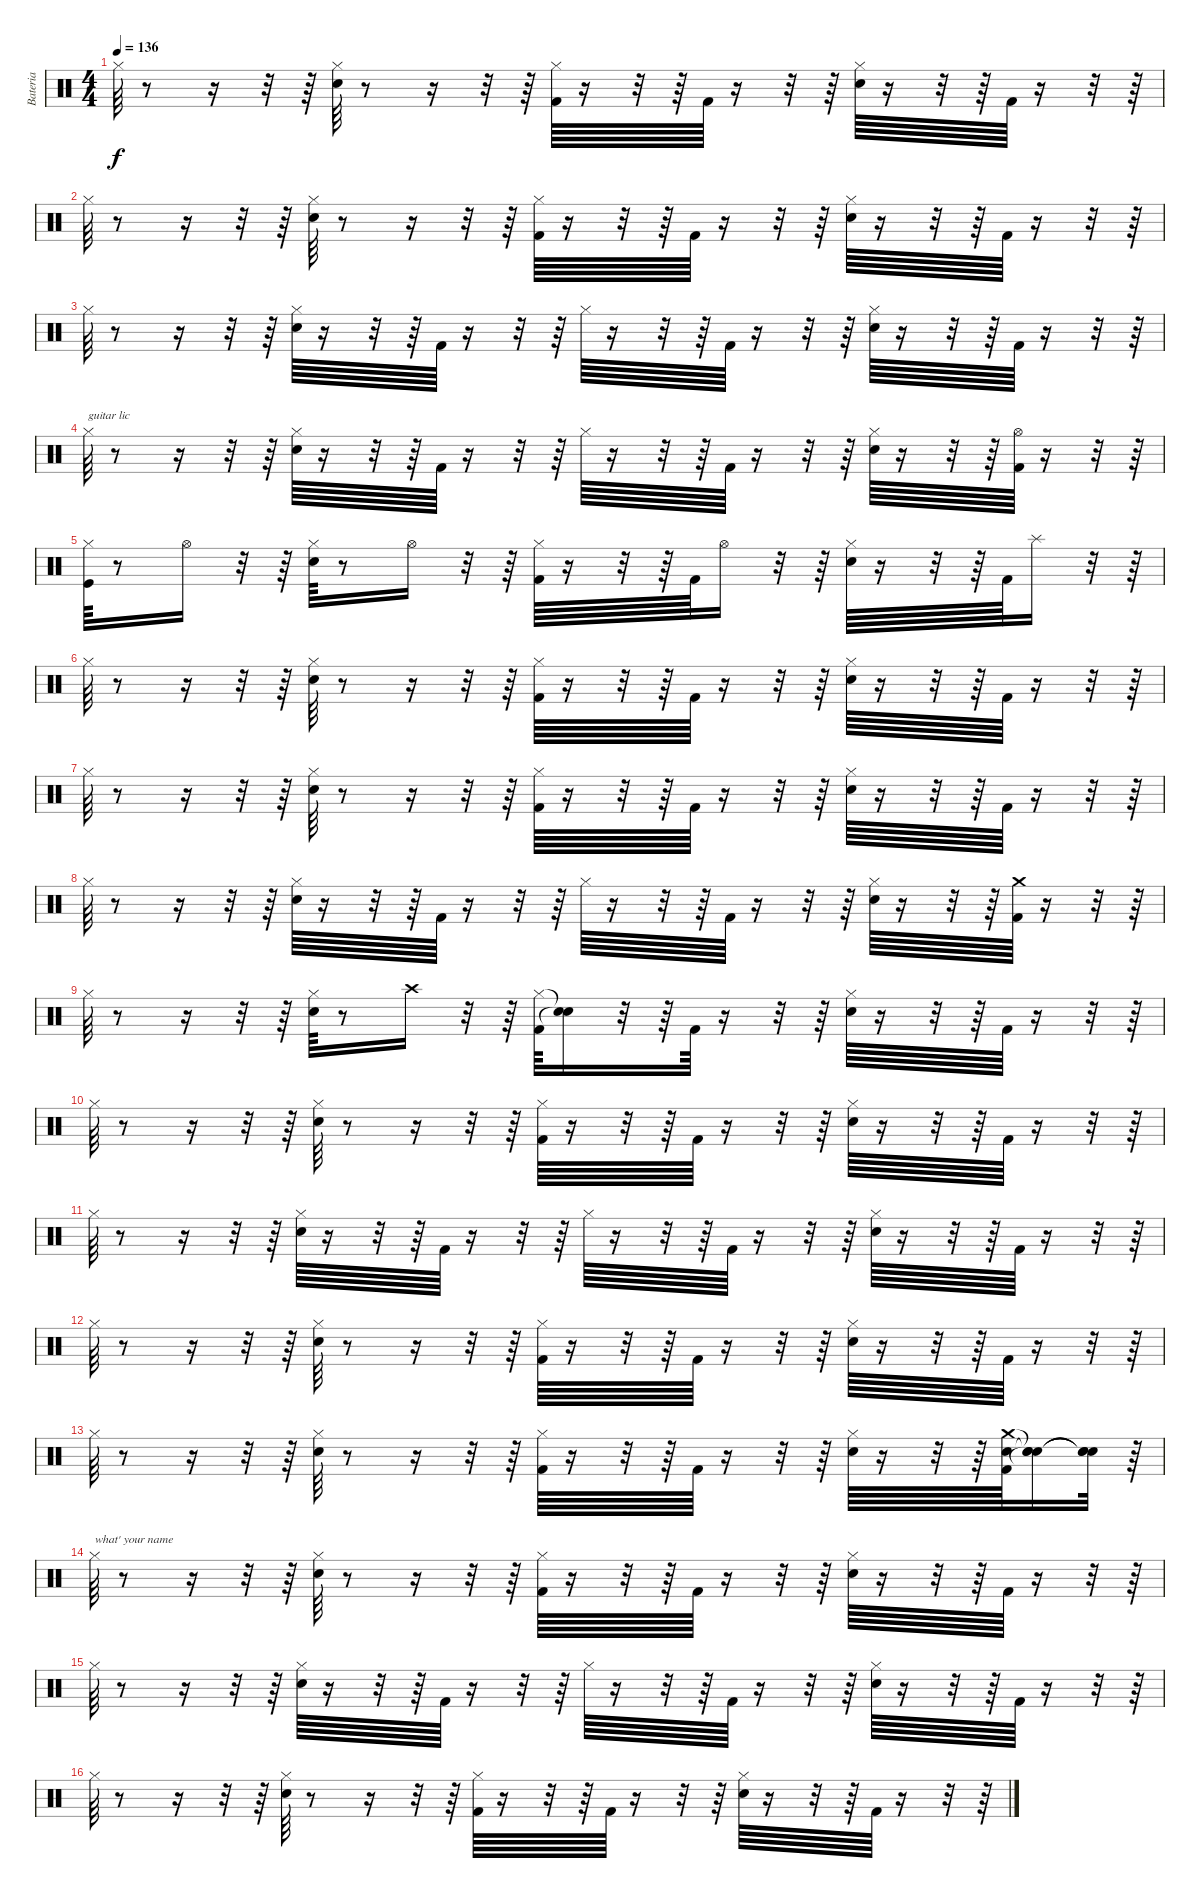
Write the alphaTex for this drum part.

\track ("Bateria" "Bateria") {instrument percussion}
\staff {score}
\articulation defaults
\ts (4 4)
\tempo 136
\clef neutral
\ks c "Hi-Hat (closed)".64{dy f}
r.8 r.16 r.32 r.64 ("Snare (hit) 2" "Hi-Hat (closed)").64 r.8 r.16 r.32 r.64 ("Kick (hit) 2" "Hi-Hat (closed)").64 r.16 r.32 r.64 "Kick (hit) 2".64 r.16 r.32 r.64 ("Snare (hit) 2" "Hi-Hat (closed)").64 r.16 r.32 r.64 "Kick (hit) 2".64 r.16 r.32 r.64 |
"Hi-Hat (closed)".64 r.8 r.16 r.32 r.64 ("Snare (hit) 2" "Hi-Hat (closed)").64 r.8 r.16 r.32 r.64 ("Kick (hit) 2" "Hi-Hat (closed)").64 r.16 r.32 r.64 "Kick (hit) 2".64 r.16 r.32 r.64 ("Snare (hit) 2" "Hi-Hat (closed)").64 r.16 r.32 r.64 "Kick (hit) 2".64 r.16 r.32 r.64 |
"Hi-Hat (closed)".64 r.8 r.16 r.32 r.64 ("Snare (hit) 2" "Hi-Hat (closed)").64 r.16 r.32 r.64 "Kick (hit) 2".64 r.16 r.32 r.64 "Hi-Hat (closed)".64 r.16 r.32 r.64 "Kick (hit) 2".64 r.16 r.32 r.64 ("Snare (hit) 2" "Hi-Hat (closed)").64 r.16 r.32 r.64 "Kick (hit) 2".64 r.16 r.32 r.64 |
"Hi-Hat (closed)".64{txt "guitar lic"} r.8 r.16 r.32 r.64 ("Snare (hit) 2" "Hi-Hat (closed)").64 r.16 r.32 r.64 "Kick (hit) 2".64 r.16 r.32 r.64 "Hi-Hat (closed)".64 r.16 r.32 r.64 "Kick (hit) 2".64 r.16 r.32 r.64 ("Snare (hit) 2" "Hi-Hat (closed)").64 r.16 r.32 r.64 ("Kick (hit) 2" "Hi-Hat (open)").64 r.16 r.32 r.64 |
("Kick (hit)" "Hi-Hat (closed)").64 r.8 "Hi-Hat (open)".16 r.32 r.64 ("Snare (hit) 2" "Hi-Hat (closed)").64 r.8 "Hi-Hat (open)".16 r.32 r.64 ("Kick (hit) 2" "Hi-Hat (closed)").64 r.16 r.32 r.64 "Kick (hit) 2".64 "Hi-Hat (open)".16 r.32 r.64 ("Snare (hit) 2" "Hi-Hat (closed)").64 r.16 r.32 r.64 "Kick (hit) 2".64 "Splash (hit)".16 r.32 r.64 |
"Hi-Hat (closed)".64 r.8 r.16 r.32 r.64 ("Snare (hit) 2" "Hi-Hat (closed)").64 r.8 r.16 r.32 r.64 ("Kick (hit) 2" "Hi-Hat (closed)").64 r.16 r.32 r.64 "Kick (hit) 2".64 r.16 r.32 r.64 ("Snare (hit) 2" "Hi-Hat (closed)").64 r.16 r.32 r.64 "Kick (hit) 2".64 r.16 r.32 r.64 |
"Hi-Hat (closed)".64 r.8 r.16 r.32 r.64 ("Snare (hit) 2" "Hi-Hat (closed)").64 r.8 r.16 r.32 r.64 ("Kick (hit) 2" "Hi-Hat (closed)").64 r.16 r.32 r.64 "Kick (hit) 2".64 r.16 r.32 r.64 ("Snare (hit) 2" "Hi-Hat (closed)").64 r.16 r.32 r.64 "Kick (hit) 2".64 r.16 r.32 r.64 |
"Hi-Hat (closed)".64 r.8 r.16 r.32 r.64 ("Snare (hit) 2" "Hi-Hat (closed)").64 r.16 r.32 r.64 "Kick (hit) 2".64 r.16 r.32 r.64 "Hi-Hat (closed)".64 r.16 r.32 r.64 "Kick (hit) 2".64 r.16 r.32 r.64 ("Snare (hit) 2" "Hi-Hat (closed)").64 r.16 r.32 r.64 ("Kick (hit) 2" "Crash medium (hit)").64 r.16 r.32 r.64 |
"Hi-Hat (closed)".64 r.8 r.16 r.32 r.64 ("Snare (hit) 2" "Hi-Hat (closed)").64 r.8 "Crash high (hit)".16 r.32 r.64 ("Kick (hit) 2" "Hi-Hat (closed)").64 ("Snare (hit)"{t} "Snare (hit)"{t}).16 r.32 r.64 "Kick (hit) 2".64 r.16 r.32 r.64 ("Snare (hit) 2" "Hi-Hat (closed)").64 r.16 r.32 r.64 "Kick (hit) 2".64 r.16 r.32 r.64 |
"Hi-Hat (closed)".64 r.8 r.16 r.32 r.64 ("Snare (hit) 2" "Hi-Hat (closed)").64 r.8 r.16 r.32 r.64 ("Kick (hit) 2" "Hi-Hat (closed)").64 r.16 r.32 r.64 "Kick (hit) 2".64 r.16 r.32 r.64 ("Snare (hit) 2" "Hi-Hat (closed)").64 r.16 r.32 r.64 "Kick (hit) 2".64 r.16 r.32 r.64 |
"Hi-Hat (closed)".64 r.8 r.16 r.32 r.64 ("Snare (hit) 2" "Hi-Hat (closed)").64 r.16 r.32 r.64 "Kick (hit) 2".64 r.16 r.32 r.64 "Hi-Hat (closed)".64 r.16 r.32 r.64 "Kick (hit) 2".64 r.16 r.32 r.64 ("Snare (hit) 2" "Hi-Hat (closed)").64 r.16 r.32 r.64 "Kick (hit) 2".64 r.16 r.32 r.64 |
"Hi-Hat (closed)".64 r.8 r.16 r.32 r.64 ("Snare (hit) 2" "Hi-Hat (closed)").64 r.8 r.16 r.32 r.64 ("Kick (hit) 2" "Hi-Hat (closed)").64 r.16 r.32 r.64 "Kick (hit) 2".64 r.16 r.32 r.64 ("Snare (hit) 2" "Hi-Hat (closed)").64 r.16 r.32 r.64 "Kick (hit) 2".64 r.16 r.32 r.64 |
"Hi-Hat (closed)".64 r.8 r.16 r.32 r.64 ("Snare (hit) 2" "Hi-Hat (closed)").64 r.8 r.16 r.32 r.64 ("Kick (hit) 2" "Hi-Hat (closed)").64 r.16 r.32 r.64 "Kick (hit) 2".64 r.16 r.32 r.64 ("Snare (hit) 2" "Hi-Hat (closed)").64 r.16 r.32 r.64 ("Kick (hit) 2" "Snare (hit) 2" "Crash medium (hit)").64 ("Snare (hit)"{t} "Snare (hit)"{t} "Snare (hit)"{t}).16 ("Snare (hit)"{t} "Snare (hit)"{t} "Snare (hit)"{t}).32 r.64 |
"Hi-Hat (closed)".64{txt "what' your name"} r.8 r.16 r.32 r.64 ("Snare (hit) 2" "Hi-Hat (closed)").64 r.8 r.16 r.32 r.64 ("Kick (hit) 2" "Hi-Hat (closed)").64 r.16 r.32 r.64 "Kick (hit) 2".64 r.16 r.32 r.64 ("Snare (hit) 2" "Hi-Hat (closed)").64 r.16 r.32 r.64 "Kick (hit) 2".64 r.16 r.32 r.64 |
"Hi-Hat (closed)".64 r.8 r.16 r.32 r.64 ("Snare (hit) 2" "Hi-Hat (closed)").64 r.16 r.32 r.64 "Kick (hit) 2".64 r.16 r.32 r.64 "Hi-Hat (closed)".64 r.16 r.32 r.64 "Kick (hit) 2".64 r.16 r.32 r.64 ("Snare (hit) 2" "Hi-Hat (closed)").64 r.16 r.32 r.64 "Kick (hit) 2".64 r.16 r.32 r.64 |
"Hi-Hat (closed)".64 r.8 r.16 r.32 r.64 ("Snare (hit) 2" "Hi-Hat (closed)").64 r.8 r.16 r.32 r.64 ("Kick (hit) 2" "Hi-Hat (closed)").64 r.16 r.32 r.64 "Kick (hit) 2".64 r.16 r.32 r.64 ("Snare (hit) 2" "Hi-Hat (closed)").64 r.16 r.32 r.64 "Kick (hit) 2".64 r.16 r.32 r.64
